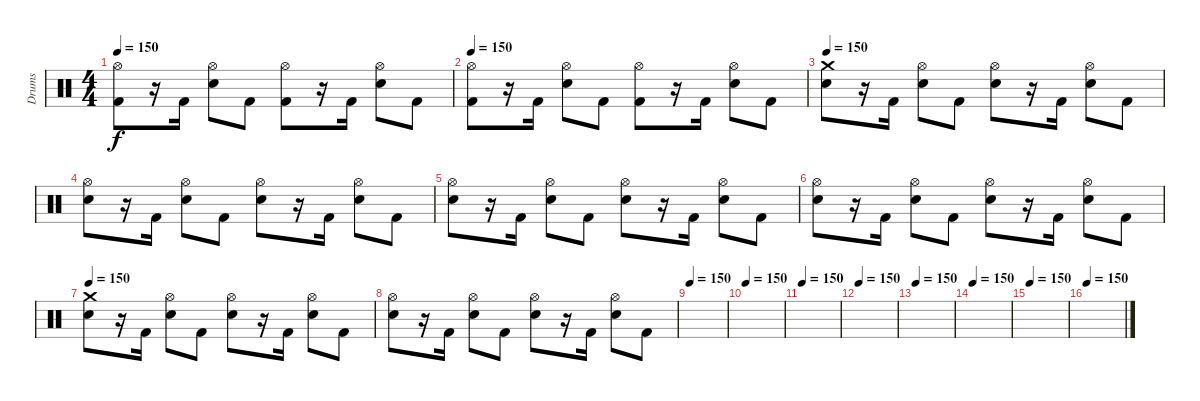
\track ("Drums" "Drums") {instrument percussion}
\staff {score}
\articulation defaults
\ts (4 4)
\tempo 150
\clef neutral
\ks c
("Kick (hit) 2" "Hi-Hat (open)").8{dy f} r.16 "Kick (hit) 2".16 ("Electric Snare (hit)" "Hi-Hat (open)").8 "Kick (hit) 2".8 ("Kick (hit) 2" "Hi-Hat (open)").8 r.16 "Kick (hit) 2".16 ("Electric Snare (hit)" "Hi-Hat (open)").8 "Kick (hit) 2".8 |
\tempo 150
("Kick (hit) 2" "Hi-Hat (open)").8 r.16 "Kick (hit) 2".16 ("Electric Snare (hit)" "Hi-Hat (open)").8 "Kick (hit) 2".8 ("Kick (hit) 2" "Hi-Hat (open)").8 r.16 "Kick (hit) 2".16 ("Electric Snare (hit)" "Hi-Hat (open)").8 "Kick (hit) 2".8 |
\tempo 150
("Electric Snare (hit)" "Crash medium (hit)").8 r.16 "Kick (hit) 2".16 ("Electric Snare (hit)" "Hi-Hat (open)").8 "Kick (hit) 2".8 ("Electric Snare (hit)" "Hi-Hat (open)").8 r.16 "Kick (hit) 2".16 ("Electric Snare (hit)" "Hi-Hat (open)").8 "Kick (hit) 2".8 |
("Electric Snare (hit)" "Hi-Hat (open)").8 r.16 "Kick (hit) 2".16 ("Electric Snare (hit)" "Hi-Hat (open)").8 "Kick (hit) 2".8 ("Electric Snare (hit)" "Hi-Hat (open)").8 r.16 "Kick (hit) 2".16 ("Electric Snare (hit)" "Hi-Hat (open)").8 "Kick (hit) 2".8 |
("Electric Snare (hit)" "Hi-Hat (open)").8 r.16 "Kick (hit) 2".16 ("Electric Snare (hit)" "Hi-Hat (open)").8 "Kick (hit) 2".8 ("Electric Snare (hit)" "Hi-Hat (open)").8 r.16 "Kick (hit) 2".16 ("Electric Snare (hit)" "Hi-Hat (open)").8 "Kick (hit) 2".8 |
("Electric Snare (hit)" "Hi-Hat (open)").8 r.16 "Kick (hit) 2".16 ("Electric Snare (hit)" "Hi-Hat (open)").8 "Kick (hit) 2".8 ("Electric Snare (hit)" "Hi-Hat (open)").8 r.16 "Kick (hit) 2".16 ("Electric Snare (hit)" "Hi-Hat (open)").8 "Kick (hit) 2".8 |
\tempo 150
("Electric Snare (hit)" "Crash medium (hit)").8 r.16 "Kick (hit) 2".16 ("Electric Snare (hit)" "Hi-Hat (open)").8 "Kick (hit) 2".8 ("Electric Snare (hit)" "Hi-Hat (open)").8 r.16 "Kick (hit) 2".16 ("Electric Snare (hit)" "Hi-Hat (open)").8 "Kick (hit) 2".8 |
("Electric Snare (hit)" "Hi-Hat (open)").8 r.16 "Kick (hit) 2".16 ("Electric Snare (hit)" "Hi-Hat (open)").8 "Kick (hit) 2".8 ("Electric Snare (hit)" "Hi-Hat (open)").8 r.16 "Kick (hit) 2".16 ("Electric Snare (hit)" "Hi-Hat (open)").8 "Kick (hit) 2".8 |
\tempo 150
|
\tempo 150
|
\tempo 150
|
\tempo 150
|
\tempo 150
|
\tempo 150
|
\tempo 150
|
\tempo 150
